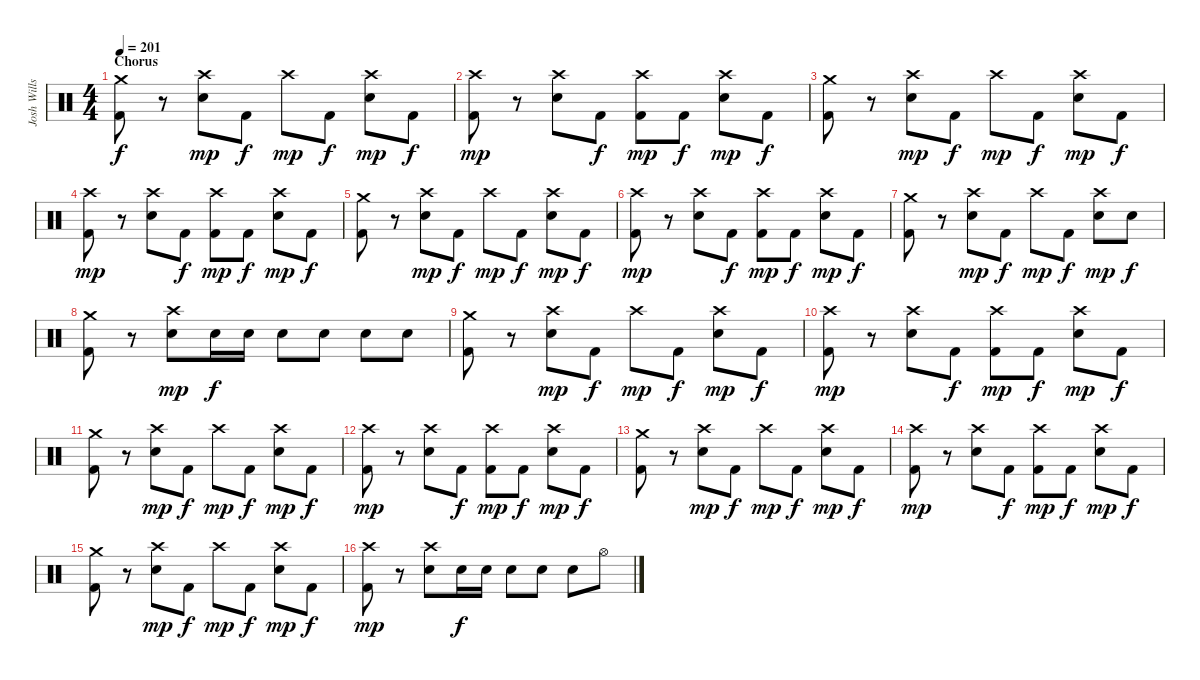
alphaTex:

\track ("Josh Wills" "Josh Wills") {instrument percussion}
\staff {score}
\articulation defaults
\ts (4 4)
\section ("" "Chorus")
\tempo 201
\clef neutral
\ks c
("Crash medium (hit)" "Kick (hit) 2").8{dy f} r.8 ("Crash high (hit)" "Snare (hit) 2").8{dy mp} "Kick (hit) 2".8{dy f} "Crash high (hit)".8{dy mp} "Kick (hit) 2".8{dy f} ("Crash high (hit)" "Snare (hit) 2").8{dy mp} "Kick (hit) 2".8{dy f} |
("Crash high (hit)" "Kick (hit) 2").8{dy mp} r.8 ("Crash high (hit)" "Snare (hit) 2").8 "Kick (hit) 2".8{dy f} ("Crash high (hit)" "Kick (hit) 2").8{dy mp} "Kick (hit) 2".8{dy f} ("Crash high (hit)" "Snare (hit) 2").8{dy mp} "Kick (hit) 2".8{dy f} |
("Crash medium (hit)" "Kick (hit) 2").8 r.8 ("Crash high (hit)" "Snare (hit) 2").8{dy mp} "Kick (hit) 2".8{dy f} "Crash high (hit)".8{dy mp} "Kick (hit) 2".8{dy f} ("Crash high (hit)" "Snare (hit) 2").8{dy mp} "Kick (hit) 2".8{dy f} |
("Crash high (hit)" "Kick (hit) 2").8{dy mp} r.8 ("Crash high (hit)" "Snare (hit) 2").8 "Kick (hit) 2".8{dy f} ("Crash high (hit)" "Kick (hit) 2").8{dy mp} "Kick (hit) 2".8{dy f} ("Crash high (hit)" "Snare (hit) 2").8{dy mp} "Kick (hit) 2".8{dy f} |
("Crash medium (hit)" "Kick (hit) 2").8 r.8 ("Crash high (hit)" "Snare (hit) 2").8{dy mp} "Kick (hit) 2".8{dy f} "Crash high (hit)".8{dy mp} "Kick (hit) 2".8{dy f} ("Crash high (hit)" "Snare (hit) 2").8{dy mp} "Kick (hit) 2".8{dy f} |
("Crash high (hit)" "Kick (hit) 2").8{dy mp} r.8 ("Crash high (hit)" "Snare (hit) 2").8 "Kick (hit) 2".8{dy f} ("Crash high (hit)" "Kick (hit) 2").8{dy mp} "Kick (hit) 2".8{dy f} ("Crash high (hit)" "Snare (hit) 2").8{dy mp} "Kick (hit) 2".8{dy f} |
("Crash medium (hit)" "Kick (hit) 2").8 r.8 ("Crash high (hit)" "Snare (hit) 2").8{dy mp} "Kick (hit) 2".8{dy f} "Crash high (hit)".8{dy mp} "Kick (hit) 2".8{dy f} ("Crash high (hit)" "Snare (hit) 2").8{dy mp} "Snare (hit) 2".8{dy f} |
("Crash medium (hit)" "Kick (hit) 2").8 r.8 ("Crash high (hit)" "Snare (hit) 2").8{dy mp} "Snare (hit) 2".16{dy f} "Snare (hit) 2".16 "Snare (hit) 2".8 "Snare (hit) 2".8 "Snare (hit) 2".8 "Snare (hit) 2".8 |
("Crash medium (hit)" "Kick (hit) 2").8 r.8 ("Crash high (hit)" "Snare (hit) 2").8{dy mp} "Kick (hit) 2".8{dy f} "Crash high (hit)".8{dy mp} "Kick (hit) 2".8{dy f} ("Crash high (hit)" "Snare (hit) 2").8{dy mp} "Kick (hit) 2".8{dy f} |
("Crash high (hit)" "Kick (hit) 2").8{dy mp} r.8 ("Crash high (hit)" "Snare (hit) 2").8 "Kick (hit) 2".8{dy f} ("Crash high (hit)" "Kick (hit) 2").8{dy mp} "Kick (hit) 2".8{dy f} ("Crash high (hit)" "Snare (hit) 2").8{dy mp} "Kick (hit) 2".8{dy f} |
("Crash medium (hit)" "Kick (hit) 2").8 r.8 ("Crash high (hit)" "Snare (hit) 2").8{dy mp} "Kick (hit) 2".8{dy f} "Crash high (hit)".8{dy mp} "Kick (hit) 2".8{dy f} ("Crash high (hit)" "Snare (hit) 2").8{dy mp} "Kick (hit) 2".8{dy f} |
("Crash high (hit)" "Kick (hit) 2").8{dy mp} r.8 ("Crash high (hit)" "Snare (hit) 2").8 "Kick (hit) 2".8{dy f} ("Crash high (hit)" "Kick (hit) 2").8{dy mp} "Kick (hit) 2".8{dy f} ("Crash high (hit)" "Snare (hit) 2").8{dy mp} "Kick (hit) 2".8{dy f} |
("Crash medium (hit)" "Kick (hit) 2").8 r.8 ("Crash high (hit)" "Snare (hit) 2").8{dy mp} "Kick (hit) 2".8{dy f} "Crash high (hit)".8{dy mp} "Kick (hit) 2".8{dy f} ("Crash high (hit)" "Snare (hit) 2").8{dy mp} "Kick (hit) 2".8{dy f} |
("Crash high (hit)" "Kick (hit) 2").8{dy mp} r.8 ("Crash high (hit)" "Snare (hit) 2").8 "Kick (hit) 2".8{dy f} ("Crash high (hit)" "Kick (hit) 2").8{dy mp} "Kick (hit) 2".8{dy f} ("Crash high (hit)" "Snare (hit) 2").8{dy mp} "Kick (hit) 2".8{dy f} |
("Crash medium (hit)" "Kick (hit) 2").8 r.8 ("Crash high (hit)" "Snare (hit) 2").8{dy mp} "Kick (hit) 2".8{dy f} "Crash high (hit)".8{dy mp} "Kick (hit) 2".8{dy f} ("Crash high (hit)" "Snare (hit) 2").8{dy mp} "Kick (hit) 2".8{dy f} |
("Crash high (hit)" "Kick (hit) 2").8{dy mp} r.8 ("Crash high (hit)" "Snare (hit) 2").8 "Snare (hit) 2".16{dy f} "Snare (hit) 2".16 "Snare (hit) 2".8 "Snare (hit) 2".8 "Snare (hit) 2".8 "Hi-Hat (open)".8
